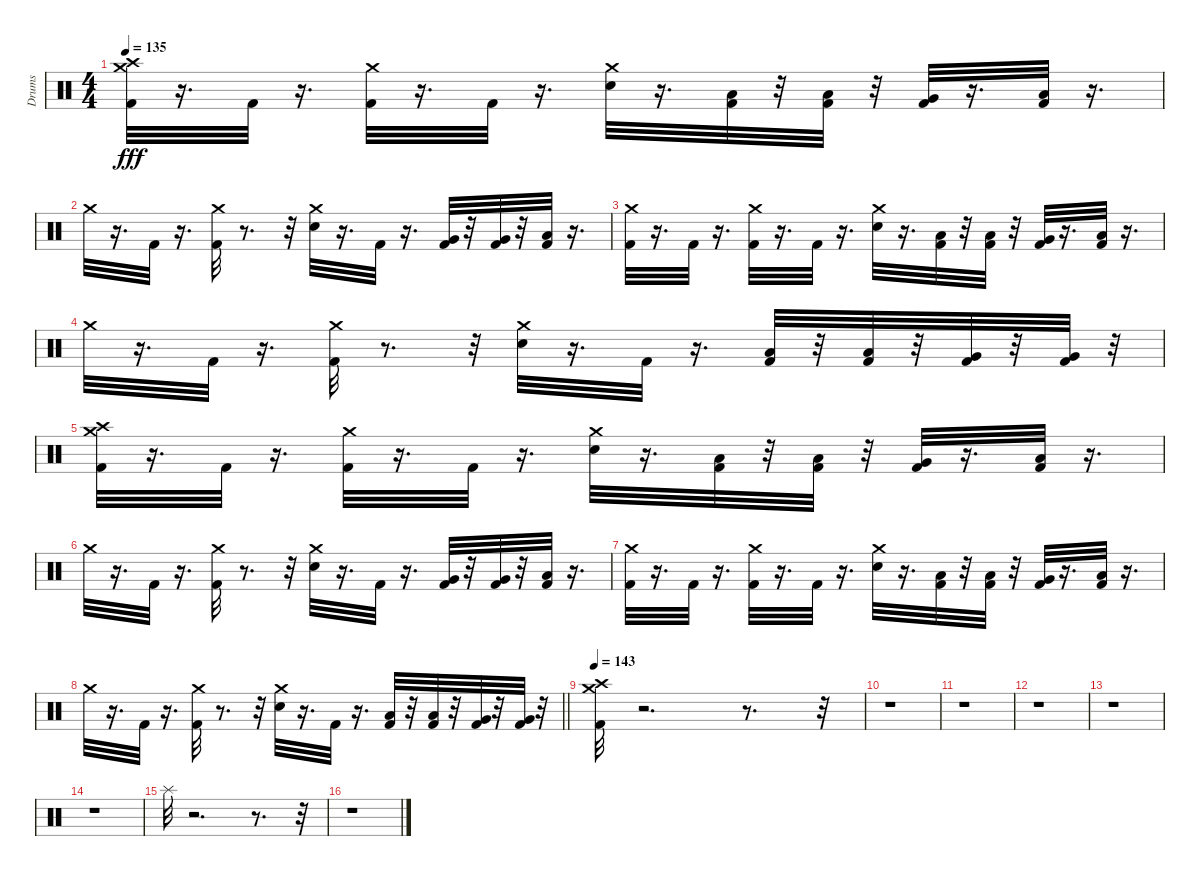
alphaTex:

\track ("Drums" "Drums") {instrument percussion}
\staff {score}
\articulation defaults
\ts (4 4)
\tempo 135
\clef neutral
\ks c
("Crash medium (hit)" "Crash high (hit)" "Kick (hit) 2").32{dy fff} r.16{d} "Kick (hit) 2".32 r.16{d} ("Crash medium (hit)" "Kick (hit) 2").32 r.16{d} "Kick (hit) 2".32 r.16{d} ("Crash medium (hit)" "Snare (hit) 2").32 r.16{d} ("Low Tom (hit)" "Kick (hit) 2").32 r.32 ("Low Tom (hit)" "Kick (hit) 2").32 r.32 ("Very Low Tom (hit)" "Kick (hit) 2").32 r.16{d} ("Low Floor Tom (hit)" "Kick (hit) 2").32 r.16{d} |
"Crash medium (hit)".32 r.16{d} "Kick (hit) 2".32 r.16{d} ("Crash medium (hit)" "Kick (hit) 2").32 r.8{d} r.32 ("Crash medium (hit)" "Snare (hit) 2").32 r.16{d} "Kick (hit) 2".32 r.16{d} ("Very Low Tom (hit)" "Kick (hit) 2").32 r.32 ("Very Low Tom (hit)" "Kick (hit) 2").32 r.32 ("Low Floor Tom (hit)" "Kick (hit) 2").32 r.16{d} |
("Crash medium (hit)" "Kick (hit) 2").32 r.16{d} "Kick (hit) 2".32 r.16{d} ("Crash medium (hit)" "Kick (hit) 2").32 r.16{d} "Kick (hit) 2".32 r.16{d} ("Crash medium (hit)" "Snare (hit) 2").32 r.16{d} ("Low Tom (hit)" "Kick (hit) 2").32 r.32 ("Low Tom (hit)" "Kick (hit) 2").32 r.32 ("Very Low Tom (hit)" "Kick (hit) 2").32 r.16{d} ("Low Floor Tom (hit)" "Kick (hit) 2").32 r.16{d} |
"Crash medium (hit)".32 r.16{d} "Kick (hit) 2".32 r.16{d} ("Crash medium (hit)" "Kick (hit) 2").32 r.8{d} r.32 ("Crash medium (hit)" "Snare (hit) 2").32 r.16{d} "Kick (hit) 2".32 r.16{d} ("Low Tom (hit)" "Kick (hit) 2").32 r.32 ("Low Tom (hit)" "Kick (hit) 2").32 r.32 ("Very Low Tom (hit)" "Kick (hit) 2").32 r.32 ("Very Low Tom (hit)" "Kick (hit) 2").32 r.32 |
("Crash medium (hit)" "Crash high (hit)" "Kick (hit) 2").32 r.16{d} "Kick (hit) 2".32 r.16{d} ("Crash medium (hit)" "Kick (hit) 2").32 r.16{d} "Kick (hit) 2".32 r.16{d} ("Crash medium (hit)" "Snare (hit) 2").32 r.16{d} ("Low Tom (hit)" "Kick (hit) 2").32 r.32 ("Low Tom (hit)" "Kick (hit) 2").32 r.32 ("Very Low Tom (hit)" "Kick (hit) 2").32 r.16{d} ("Low Floor Tom (hit)" "Kick (hit) 2").32 r.16{d} |
"Crash medium (hit)".32 r.16{d} "Kick (hit) 2".32 r.16{d} ("Crash medium (hit)" "Kick (hit) 2").32 r.8{d} r.32 ("Crash medium (hit)" "Snare (hit) 2").32 r.16{d} "Kick (hit) 2".32 r.16{d} ("Very Low Tom (hit)" "Kick (hit) 2").32 r.32 ("Very Low Tom (hit)" "Kick (hit) 2").32 r.32 ("Low Floor Tom (hit)" "Kick (hit) 2").32 r.16{d} |
("Crash medium (hit)" "Kick (hit) 2").32 r.16{d} "Kick (hit) 2".32 r.16{d} ("Crash medium (hit)" "Kick (hit) 2").32 r.16{d} "Kick (hit) 2".32 r.16{d} ("Crash medium (hit)" "Snare (hit) 2").32 r.16{d} ("Low Tom (hit)" "Kick (hit) 2").32 r.32 ("Low Tom (hit)" "Kick (hit) 2").32 r.32 ("Very Low Tom (hit)" "Kick (hit) 2").32 r.16{d} ("Low Floor Tom (hit)" "Kick (hit) 2").32 r.16{d} |
\barLineRight lightlight "Crash medium (hit)".32
r.16{d} "Kick (hit) 2".32 r.16{d} ("Crash medium (hit)" "Kick (hit) 2").32 r.8{d} r.32 ("Crash medium (hit)" "Snare (hit) 2").32 r.16{d} "Kick (hit) 2".32 r.16{d} ("Low Tom (hit)" "Kick (hit) 2").32 r.32 ("Low Tom (hit)" "Kick (hit) 2").32 r.32 ("Very Low Tom (hit)" "Kick (hit) 2").32 r.32 ("Very Low Tom (hit)" "Kick (hit) 2").32 r.32 |
\tempo 145
\tempo 143
("Crash medium (hit)" "Crash high (hit)" "Kick (hit) 2").32 r.2{d} r.8{d} r.32 |
r.1 |
r.1 |
r.1 |
r.1 |
r.1 |
"Splash (hit)".32 r.2{d} r.8{d} r.32 |
r.1
